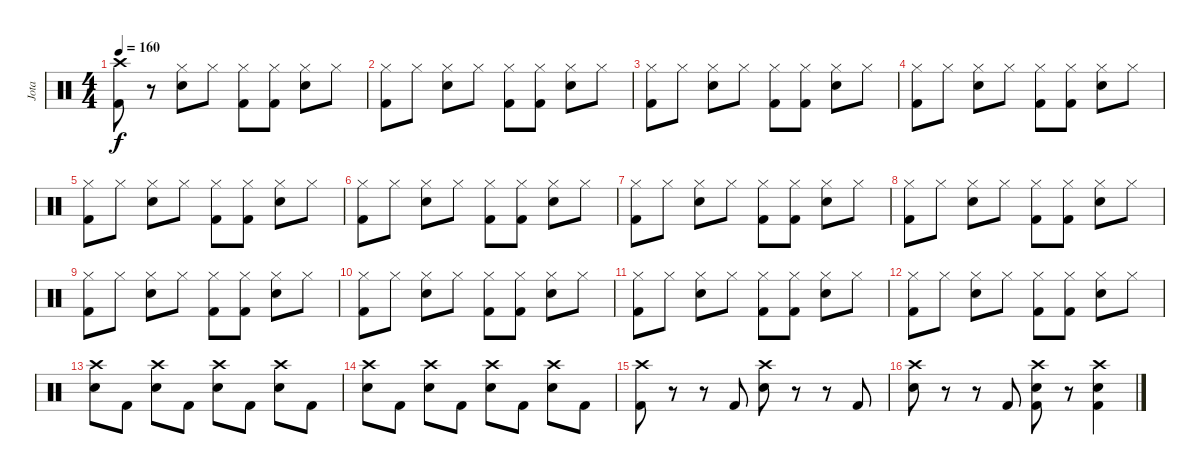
\track ("Jota" "Jota") {instrument percussion}
\staff {score}
\articulation defaults
\ts (4 4)
\tempo 160
\clef neutral
\ks c
("Crash high (hit)" "Kick (hit) 2").8{dy f} r.8 ("Hi-Hat (closed)" "Electric Snare (hit)").8 "Hi-Hat (closed)".8 ("Hi-Hat (closed)" "Kick (hit) 2").8 ("Hi-Hat (closed)" "Kick (hit) 2").8 ("Hi-Hat (closed)" "Electric Snare (hit)").8 "Hi-Hat (closed)".8 |
("Hi-Hat (closed)" "Kick (hit) 2").8 "Hi-Hat (closed)".8 ("Hi-Hat (closed)" "Electric Snare (hit)").8 "Hi-Hat (closed)".8 ("Hi-Hat (closed)" "Kick (hit) 2").8 ("Hi-Hat (closed)" "Kick (hit) 2").8 ("Hi-Hat (closed)" "Electric Snare (hit)").8 "Hi-Hat (closed)".8 |
("Hi-Hat (closed)" "Kick (hit) 2").8 "Hi-Hat (closed)".8 ("Hi-Hat (closed)" "Electric Snare (hit)").8 "Hi-Hat (closed)".8 ("Hi-Hat (closed)" "Kick (hit) 2").8 ("Hi-Hat (closed)" "Kick (hit) 2").8 ("Hi-Hat (closed)" "Electric Snare (hit)").8 "Hi-Hat (closed)".8 |
("Hi-Hat (closed)" "Kick (hit) 2").8 "Hi-Hat (closed)".8 ("Hi-Hat (closed)" "Electric Snare (hit)").8 "Hi-Hat (closed)".8 ("Hi-Hat (closed)" "Kick (hit) 2").8 ("Hi-Hat (closed)" "Kick (hit) 2").8 ("Hi-Hat (closed)" "Electric Snare (hit)").8 "Hi-Hat (closed)".8 |
("Hi-Hat (closed)" "Kick (hit) 2").8 "Hi-Hat (closed)".8 ("Hi-Hat (closed)" "Electric Snare (hit)").8 "Hi-Hat (closed)".8 ("Hi-Hat (closed)" "Kick (hit) 2").8 ("Hi-Hat (closed)" "Kick (hit) 2").8 ("Hi-Hat (closed)" "Electric Snare (hit)").8 "Hi-Hat (closed)".8 |
("Hi-Hat (closed)" "Kick (hit) 2").8 "Hi-Hat (closed)".8 ("Hi-Hat (closed)" "Electric Snare (hit)").8 "Hi-Hat (closed)".8 ("Hi-Hat (closed)" "Kick (hit) 2").8 ("Hi-Hat (closed)" "Kick (hit) 2").8 ("Hi-Hat (closed)" "Electric Snare (hit)").8 "Hi-Hat (closed)".8 |
("Hi-Hat (closed)" "Kick (hit) 2").8 "Hi-Hat (closed)".8 ("Hi-Hat (closed)" "Electric Snare (hit)").8 "Hi-Hat (closed)".8 ("Hi-Hat (closed)" "Kick (hit) 2").8 ("Hi-Hat (closed)" "Kick (hit) 2").8 ("Hi-Hat (closed)" "Electric Snare (hit)").8 "Hi-Hat (closed)".8 |
("Hi-Hat (closed)" "Kick (hit) 2").8 "Hi-Hat (closed)".8 ("Hi-Hat (closed)" "Electric Snare (hit)").8 "Hi-Hat (closed)".8 ("Hi-Hat (closed)" "Kick (hit) 2").8 ("Hi-Hat (closed)" "Kick (hit) 2").8 ("Hi-Hat (closed)" "Electric Snare (hit)").8 "Hi-Hat (closed)".8 |
("Hi-Hat (closed)" "Kick (hit) 2").8 "Hi-Hat (closed)".8 ("Hi-Hat (closed)" "Electric Snare (hit)").8 "Hi-Hat (closed)".8 ("Hi-Hat (closed)" "Kick (hit) 2").8 ("Hi-Hat (closed)" "Kick (hit) 2").8 ("Hi-Hat (closed)" "Electric Snare (hit)").8 "Hi-Hat (closed)".8 |
("Hi-Hat (closed)" "Kick (hit) 2").8 "Hi-Hat (closed)".8 ("Hi-Hat (closed)" "Electric Snare (hit)").8 "Hi-Hat (closed)".8 ("Hi-Hat (closed)" "Kick (hit) 2").8 ("Hi-Hat (closed)" "Kick (hit) 2").8 ("Hi-Hat (closed)" "Electric Snare (hit)").8 "Hi-Hat (closed)".8 |
("Hi-Hat (closed)" "Kick (hit) 2").8 "Hi-Hat (closed)".8 ("Hi-Hat (closed)" "Electric Snare (hit)").8 "Hi-Hat (closed)".8 ("Hi-Hat (closed)" "Kick (hit) 2").8 ("Hi-Hat (closed)" "Kick (hit) 2").8 ("Hi-Hat (closed)" "Electric Snare (hit)").8 "Hi-Hat (closed)".8 |
("Hi-Hat (closed)" "Kick (hit) 2").8 "Hi-Hat (closed)".8 ("Hi-Hat (closed)" "Electric Snare (hit)").8 "Hi-Hat (closed)".8 ("Hi-Hat (closed)" "Kick (hit) 2").8 ("Hi-Hat (closed)" "Kick (hit) 2").8 ("Hi-Hat (closed)" "Electric Snare (hit)").8 "Hi-Hat (closed)".8 |
("Crash high (hit)" "Electric Snare (hit)").8 "Kick (hit) 2".8 ("Crash high (hit)" "Electric Snare (hit)").8 "Kick (hit) 2".8 ("Crash high (hit)" "Electric Snare (hit)").8 "Kick (hit) 2".8 ("Crash high (hit)" "Electric Snare (hit)").8 "Kick (hit) 2".8 |
("Crash high (hit)" "Electric Snare (hit)").8 "Kick (hit) 2".8 ("Crash high (hit)" "Electric Snare (hit)").8 "Kick (hit) 2".8 ("Crash high (hit)" "Electric Snare (hit)").8 "Kick (hit) 2".8 ("Crash high (hit)" "Electric Snare (hit)").8 "Kick (hit) 2".8 |
("Crash high (hit)" "Kick (hit) 2").8 r.8 r.8 "Kick (hit) 2".8 ("Crash high (hit)" "Electric Snare (hit)").8 r.8 r.8 "Kick (hit) 2".8 |
("Crash high (hit)" "Electric Snare (hit)").8 r.8 r.8 "Kick (hit) 2".8 ("Crash high (hit)" "Electric Snare (hit)" "Kick (hit) 2").8 r.8 ("Crash high (hit)" "Electric Snare (hit)" "Kick (hit) 2").4
